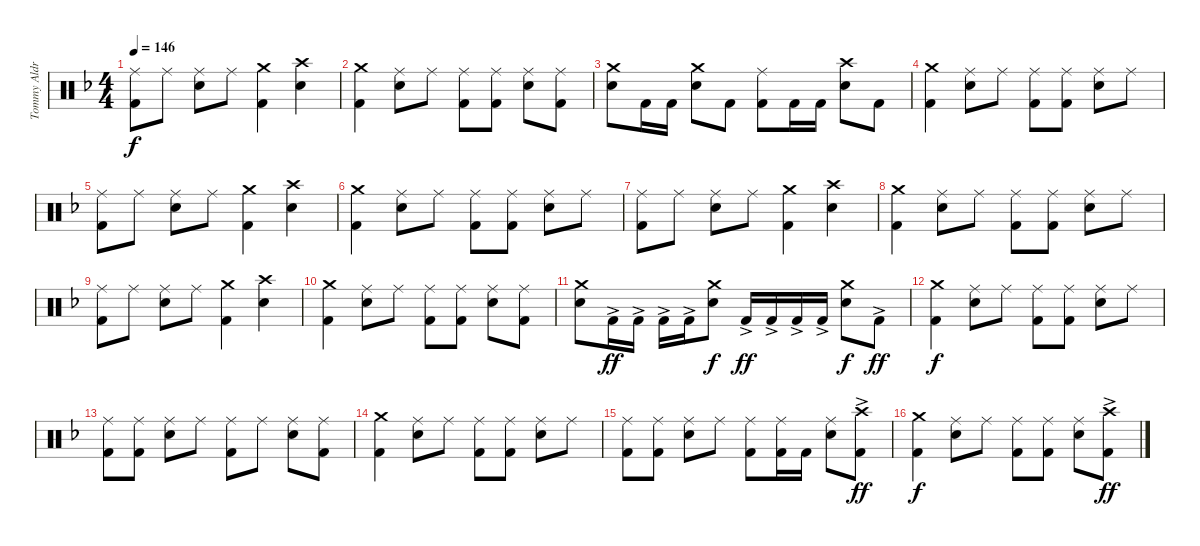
\track ("Tommy Aldridge Drums" "Tommy Aldr") {instrument percussion}
\staff {score}
\articulation defaults
\ts (4 4)
\tempo 146
\clef neutral
\ks dminor
("Ride (middle)" "Kick (hit) 2").8{dy f} "Ride (middle)".8 ("Ride (middle)" "Electric Snare (hit)").8 "Ride (middle)".8 ("Crash medium (hit)" "Kick (hit) 2").4 ("Crash high (hit)" "Electric Snare (hit)").4 |
("Crash medium (hit)" "Kick (hit) 2").4 ("Ride (middle)" "Electric Snare (hit)").8 "Ride (middle)".8 ("Ride (middle)" "Kick (hit) 2").8 ("Ride (middle)" "Kick (hit) 2").8 ("Ride (middle)" "Electric Snare (hit)").8 ("Ride (middle)" "Kick (hit) 2").8 |
("Crash medium (hit)" "Electric Snare (hit)").8 "Kick (hit) 2".16 "Kick (hit) 2".16 ("Crash medium (hit)" "Electric Snare (hit)").8 "Kick (hit) 2".8 ("Ride (middle)" "Kick (hit) 2").8 "Kick (hit) 2".16 "Kick (hit) 2".16 ("Crash high (hit)" "Electric Snare (hit)").8 "Kick (hit) 2".8 |
("Crash medium (hit)" "Kick (hit) 2").4 ("Ride (middle)" "Electric Snare (hit)").8 "Ride (middle)".8 ("Ride (middle)" "Kick (hit) 2").8 ("Ride (middle)" "Kick (hit) 2").8 ("Ride (middle)" "Electric Snare (hit)").8 "Ride (middle)".8 |
("Ride (middle)" "Kick (hit) 2").8 "Ride (middle)".8 ("Ride (middle)" "Electric Snare (hit)").8 "Ride (middle)".8 ("Crash medium (hit)" "Kick (hit) 2").4 ("Crash high (hit)" "Electric Snare (hit)").4 |
("Crash medium (hit)" "Kick (hit) 2").4 ("Ride (middle)" "Electric Snare (hit)").8 "Ride (middle)".8 ("Ride (middle)" "Kick (hit) 2").8 ("Ride (middle)" "Kick (hit) 2").8 ("Ride (middle)" "Electric Snare (hit)").8 "Ride (middle)".8 |
("Ride (middle)" "Kick (hit) 2").8 "Ride (middle)".8 ("Ride (middle)" "Electric Snare (hit)").8 "Ride (middle)".8 ("Crash medium (hit)" "Kick (hit) 2").4 ("Crash high (hit)" "Electric Snare (hit)").4 |
("Crash medium (hit)" "Kick (hit) 2").4 ("Ride (middle)" "Electric Snare (hit)").8 "Ride (middle)".8 ("Ride (middle)" "Kick (hit) 2").8 ("Ride (middle)" "Kick (hit) 2").8 ("Ride (middle)" "Electric Snare (hit)").8 "Ride (middle)".8 |
("Ride (middle)" "Kick (hit) 2").8 "Ride (middle)".8 ("Ride (middle)" "Electric Snare (hit)").8 "Ride (middle)".8 ("Crash medium (hit)" "Kick (hit) 2").4 ("Crash high (hit)" "Electric Snare (hit)").4 |
("Crash medium (hit)" "Kick (hit) 2").4 ("Ride (middle)" "Electric Snare (hit)").8 "Ride (middle)".8 ("Ride (middle)" "Kick (hit) 2").8 ("Ride (middle)" "Kick (hit) 2").8 ("Ride (middle)" "Electric Snare (hit)").8 ("Ride (middle)" "Kick (hit) 2").8 |
("Crash medium (hit)" "Electric Snare (hit)").8 "Kick (hit) 2"{ac}.16{dy ff} "Kick (hit) 2"{ac}.16 "Kick (hit) 2"{ac}.16 "Kick (hit) 2"{ac}.16 ("Crash medium (hit)" "Electric Snare (hit)").8{dy f} "Kick (hit) 2"{ac}.16{dy ff} "Kick (hit) 2"{ac}.16 "Kick (hit) 2"{ac}.16 "Kick (hit) 2"{ac}.16 ("Crash medium (hit)" "Electric Snare (hit)").8{dy f} "Kick (hit) 2"{ac}.8{dy ff} |
("Crash medium (hit)" "Kick (hit) 2").4{dy f} ("Ride (middle)" "Electric Snare (hit)").8 "Ride (middle)".8 ("Ride (middle)" "Kick (hit) 2").8 ("Ride (middle)" "Kick (hit) 2").8 ("Ride (middle)" "Electric Snare (hit)").8 "Ride (middle)".8 |
("Ride (middle)" "Kick (hit) 2").8 ("Ride (middle)" "Kick (hit) 2").8 ("Ride (middle)" "Electric Snare (hit)").8 "Ride (middle)".8 ("Ride (middle)" "Kick (hit) 2").8 "Ride (middle)".8 ("Ride (middle)" "Electric Snare (hit)").8 ("Ride (middle)" "Kick (hit) 2").8 |
("Crash medium (hit)" "Kick (hit) 2").4 ("Ride (middle)" "Electric Snare (hit)").8 "Ride (middle)".8 ("Ride (middle)" "Kick (hit) 2").8 ("Ride (middle)" "Kick (hit) 2").8 ("Ride (middle)" "Electric Snare (hit)").8 "Ride (middle)".8 |
("Ride (middle)" "Kick (hit) 2").8 ("Ride (middle)" "Kick (hit) 2").8 ("Ride (middle)" "Electric Snare (hit)").8 "Ride (middle)".8 ("Ride (middle)" "Kick (hit) 2").8 ("Ride (middle)" "Kick (hit) 2").16 "Kick (hit) 2".16 ("Ride (middle)" "Electric Snare (hit)").8 ("Crash high (hit)"{ac} "Kick (hit) 2"{ac}).8{dy ff} |
("Crash medium (hit)" "Kick (hit) 2").4{dy f} ("Ride (middle)" "Electric Snare (hit)").8 "Ride (middle)".8 ("Ride (middle)" "Kick (hit) 2").8 ("Ride (middle)" "Kick (hit) 2").8 ("Ride (middle)" "Electric Snare (hit)").8 ("Crash high (hit)"{ac} "Kick (hit) 2"{ac}).8{dy ff}
